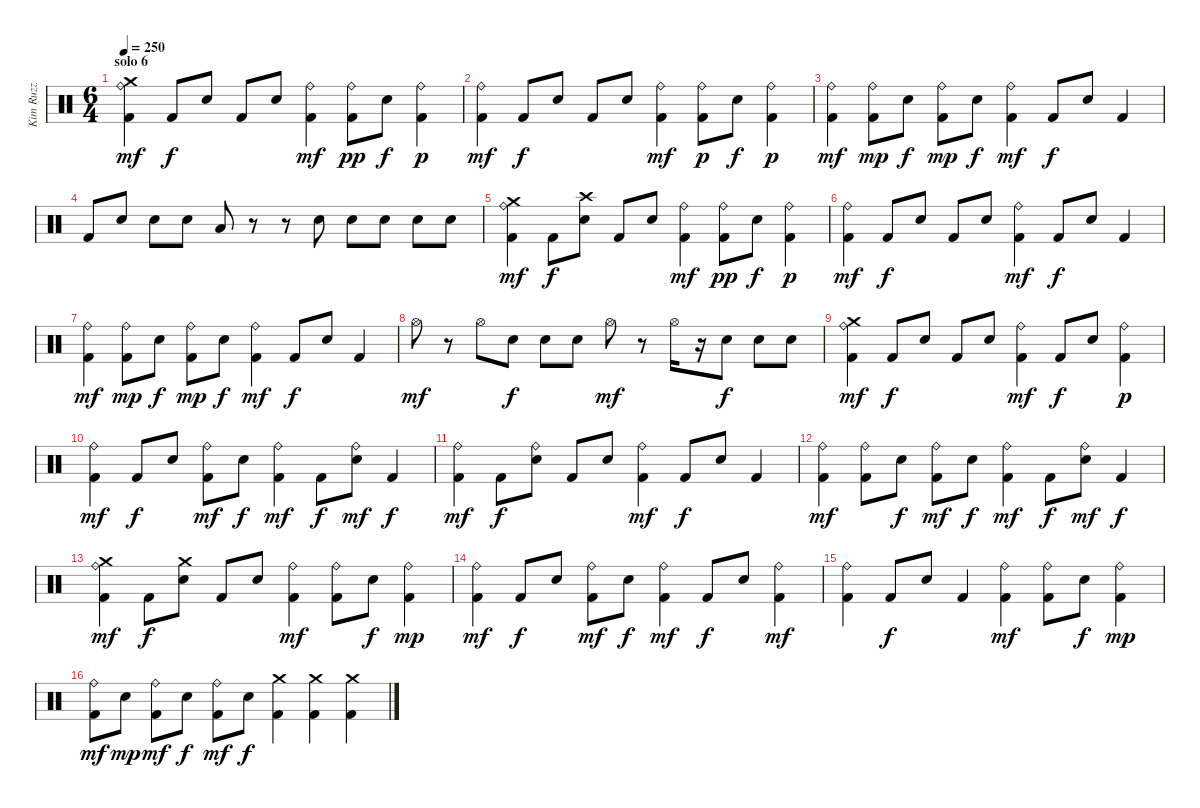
\track ("Kim Ruzz" "Kim Ruzz") {instrument percussion}
\staff {score}
\articulation defaults
\ts (6 4)
\section ("" "solo 6")
\tempo 250
\clef neutral
\ks c
("Kick (hit) 2" "Ride (bell)" "Crash medium (hit)").4{dy mf} "Kick (hit) 2".8{dy f} "Snare (hit) 2".8 "Kick (hit) 2".8 "Snare (hit) 2".8 ("Kick (hit) 2" "Ride (bell)").4{dy mf} ("Kick (hit) 2" "Ride (bell)").8{dy pp} "Snare (hit) 2".8{dy f} ("Kick (hit) 2" "Ride (bell)").4{dy p} |
("Kick (hit) 2" "Ride (bell)").4{dy mf} "Kick (hit) 2".8{dy f} "Snare (hit) 2".8 "Kick (hit) 2".8 "Snare (hit) 2".8 ("Kick (hit) 2" "Ride (bell)").4{dy mf} ("Kick (hit) 2" "Ride (bell)").8{dy p} "Snare (hit) 2".8{dy f} ("Kick (hit) 2" "Ride (bell)").4{dy p} |
("Kick (hit) 2" "Ride (bell)").4{dy mf} ("Kick (hit) 2" "Ride (bell)").8{dy mp} "Snare (hit) 2".8{dy f} ("Kick (hit) 2" "Ride (bell)").8{dy mp} "Snare (hit) 2".8{dy f} ("Kick (hit) 2" "Ride (bell)").4{dy mf} "Kick (hit) 2".8{dy f} "Snare (hit) 2".8 "Kick (hit) 2".4 |
"Kick (hit) 2".8 "Snare (hit) 2".8 "Snare (hit) 2".8 "Snare (hit) 2".8 "Low Tom (hit)".8 r.8 r.8 "Snare (hit) 2".8 "Snare (hit) 2".8 "Snare (hit) 2".8 "Snare (hit) 2".8 "Snare (hit) 2".8 |
("Kick (hit) 2" "Ride (bell)" "Crash medium (hit)").4{dy mf} "Kick (hit) 2".8{dy f} ("Snare (hit) 2" "Crash high (hit)").8 "Kick (hit) 2".8 "Snare (hit) 2".8 ("Kick (hit) 2" "Ride (bell)").4{dy mf} ("Kick (hit) 2" "Ride (bell)").8{dy pp} "Snare (hit) 2".8{dy f} ("Kick (hit) 2" "Ride (bell)").4{dy p} |
("Kick (hit) 2" "Ride (bell)").4{dy mf} "Kick (hit) 2".8{dy f} "Snare (hit) 2".8 "Kick (hit) 2".8 "Snare (hit) 2".8 ("Kick (hit) 2" "Ride (bell)").4{dy mf} "Kick (hit) 2".8{dy f} "Snare (hit) 2".8 "Kick (hit) 2".4 |
("Kick (hit) 2" "Ride (bell)").4{dy mf} ("Kick (hit) 2" "Ride (bell)").8{dy mp} "Snare (hit) 2".8{dy f} ("Kick (hit) 2" "Ride (bell)").8{dy mp} "Snare (hit) 2".8{dy f} ("Kick (hit) 2" "Ride (bell)").4{dy mf} "Kick (hit) 2".8{dy f} "Snare (hit) 2".8 "Kick (hit) 2".4 |
"Hi-Hat (open)".8{dy mf} r.8 "Hi-Hat (open)".8 "Snare (hit) 2".8{dy f} "Snare (hit) 2".8 "Snare (hit) 2".8 "Hi-Hat (open)".8{dy mf} r.8 "Hi-Hat (open)".16 r.16 "Snare (hit) 2".8{dy f} "Snare (hit) 2".8 "Snare (hit) 2".8 |
("Kick (hit) 2" "Ride (bell)" "Crash medium (hit)").4{dy mf} "Kick (hit) 2".8{dy f} "Snare (hit) 2".8 "Kick (hit) 2".8 "Snare (hit) 2".8 ("Kick (hit) 2" "Ride (bell)").4{dy mf} "Kick (hit) 2".8{dy f} "Snare (hit) 2".8 ("Kick (hit) 2" "Ride (bell)").4{dy p} |
("Kick (hit) 2" "Ride (bell)").4{dy mf} "Kick (hit) 2".8{dy f} "Snare (hit) 2".8 ("Kick (hit) 2" "Ride (bell)").8{dy mf} "Snare (hit) 2".8{dy f} ("Kick (hit) 2" "Ride (bell)").4{dy mf} "Kick (hit) 2".8{dy f} ("Ride (bell)" "Snare (hit) 2").8{dy mf} "Kick (hit) 2".4{dy f} |
("Kick (hit) 2" "Ride (bell)").4{dy mf} "Kick (hit) 2".8{dy f} ("Ride (bell)" "Snare (hit) 2").8 "Kick (hit) 2".8 "Snare (hit) 2".8 ("Kick (hit) 2" "Ride (bell)").4{dy mf} "Kick (hit) 2".8{dy f} "Snare (hit) 2".8 "Kick (hit) 2".4 |
("Kick (hit) 2" "Ride (bell)").4{dy mf} ("Kick (hit) 2" "Ride (bell)").8 "Snare (hit) 2".8{dy f} ("Kick (hit) 2" "Ride (bell)").8{dy mf} "Snare (hit) 2".8{dy f} ("Kick (hit) 2" "Ride (bell)").4{dy mf} "Kick (hit) 2".8{dy f} ("Ride (bell)" "Snare (hit) 2").8{dy mf} "Kick (hit) 2".4{dy f} |
("Kick (hit) 2" "Ride (bell)" "Crash medium (hit)").4{dy mf} "Kick (hit) 2".8{dy f} ("Snare (hit) 2" "Crash medium (hit)").8 "Kick (hit) 2".8 "Snare (hit) 2".8 ("Kick (hit) 2" "Ride (bell)").4{dy mf} ("Kick (hit) 2" "Ride (bell)").8 "Snare (hit) 2".8{dy f} ("Kick (hit) 2" "Ride (bell)").4{dy mp} |
("Kick (hit) 2" "Ride (bell)").4{dy mf} "Kick (hit) 2".8{dy f} "Snare (hit) 2".8 ("Kick (hit) 2" "Ride (bell)").8{dy mf} "Snare (hit) 2".8{dy f} ("Kick (hit) 2" "Ride (bell)").4{dy mf} "Kick (hit) 2".8{dy f} "Snare (hit) 2".8 ("Kick (hit) 2" "Ride (bell)").4{dy mf} |
("Kick (hit) 2" "Ride (bell)").4 "Kick (hit) 2".8{dy f} "Snare (hit) 2".8 "Kick (hit) 2".4 ("Kick (hit) 2" "Ride (bell)").4{dy mf} ("Kick (hit) 2" "Ride (bell)").8 "Snare (hit) 2".8{dy f} ("Kick (hit) 2" "Ride (bell)").4{dy mp} |
("Kick (hit) 2" "Ride (bell)").8{dy mf} "Snare (hit) 2".8{dy mp} ("Kick (hit) 2" "Ride (bell)").8{dy mf} "Snare (hit) 2".8{dy f} ("Kick (hit) 2" "Ride (bell)").8{dy mf} "Snare (hit) 2".8{dy f} ("Kick (hit) 2" "Crash medium (hit)").4 ("Kick (hit) 2" "Crash medium (hit)").4 ("Kick (hit) 2" "Crash medium (hit)").4
